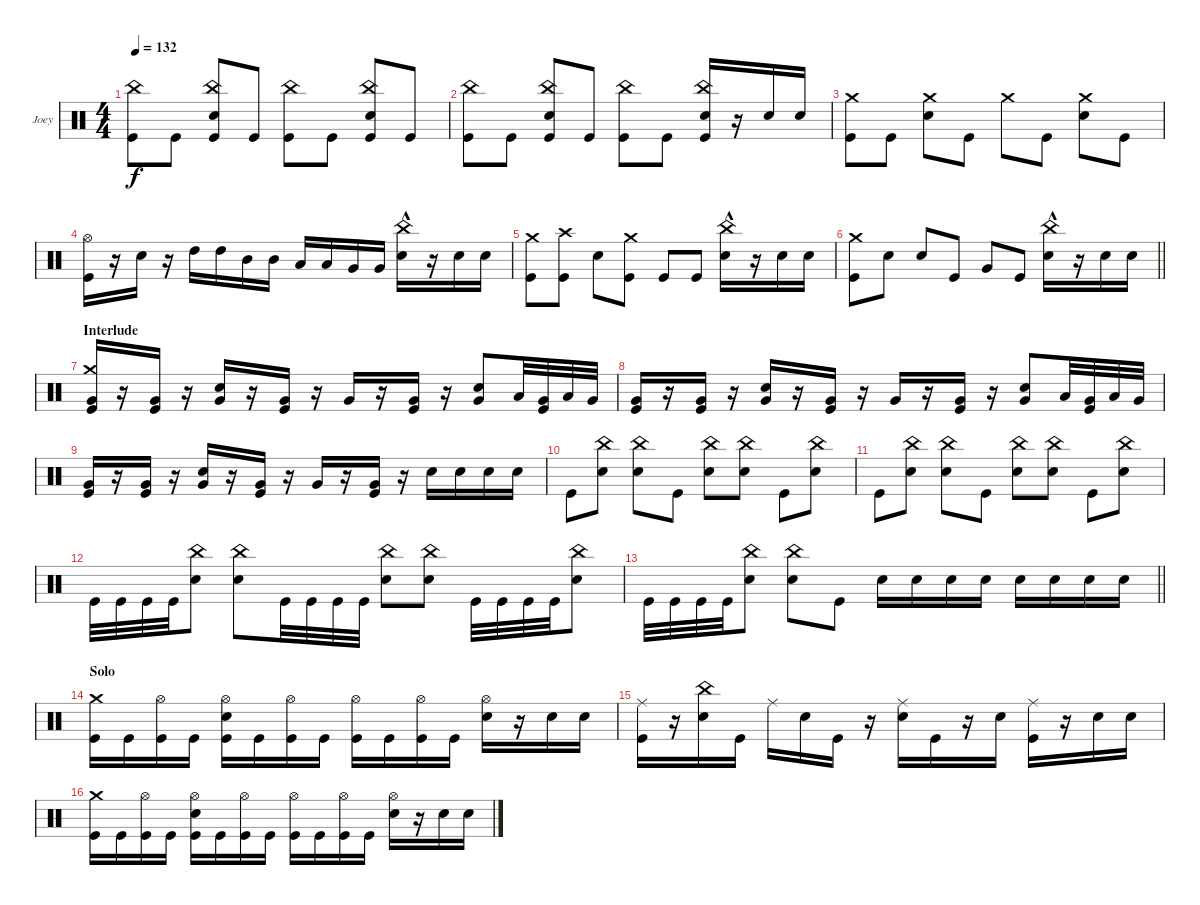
\bracketExtendMode groupsimilarinstruments
\firstSystemTrackNameOrientation horizontal
\otherSystemsTrackNameOrientation horizontal
\track ("Joey Jordison" "Joey") {instrument percussion}
\staff {score}
\articulation defaults
\ts (4 4)
\tempo 132
\clef neutral
\ks c
("Kick (hit)" "China (hit)").8{dy f} "Kick (hit)".8 ("Snare (hit) 2" "Kick (hit)" "China (hit)").8 "Kick (hit)".8 ("Kick (hit)" "China (hit)").8 "Kick (hit)".8 ("Snare (hit) 2" "Kick (hit)" "China (hit)").8 "Kick (hit)".8 |
("Kick (hit)" "China (hit)").8 "Kick (hit)".8 ("Snare (hit) 2" "Kick (hit)" "China (hit)").8 "Kick (hit)".8 ("Kick (hit)" "China (hit)").8 "Kick (hit)".8 ("Snare (hit) 2" "Kick (hit)" "China (hit)").16 r.16 "Snare (hit) 2".16 "Snare (hit) 2".16 |
("Crash medium (hit)" "Kick (hit)").8 "Kick (hit)".8 ("Crash medium (hit)" "Snare (hit) 2").8 "Kick (hit)".8 "Crash medium (hit)".8 "Kick (hit)".8 ("Crash medium (hit)" "Snare (hit) 2").8 "Kick (hit)".8 |
("Hi-Hat (open)" "Kick (hit)").16 r.16 "Snare (hit) 2".16 r.16 "High Tom (hit)".16 "High Tom (hit)".16 "Mid Tom (hit)".16 "Mid Tom (hit)".16 "Low Tom (hit)".16 "Low Tom (hit)".16 "Very Low Tom (hit)".16 "Very Low Tom (hit)".16 ("Snare (hit) 2" "China (hit)"{hac}).16 r.16 "Snare (hit) 2".16 "Snare (hit) 2".16 |
("Crash medium (hit)" "Kick (hit)").8 ("Kick (hit)" "Crash high (hit)").8 "Snare (hit) 2".8 ("Kick (hit)" "Crash medium (hit)").8 "Kick (hit)".8 "Kick (hit)".8 ("Snare (hit) 2" "China (hit)"{hac}).16 r.16 "Snare (hit) 2".16 "Snare (hit) 2".16 |
\barLineRight lightlight
("Crash medium (hit)" "Kick (hit)").8 "Snare (hit) 2".8 "Snare (hit) 2".8 "Kick (hit)".8 "Very Low Tom (hit)".8 "Kick (hit)".8 ("Snare (hit) 2" "China (hit)"{hac}).16 r.16 "Snare (hit) 2".16 "Snare (hit) 2".16 |
\section ("" "Interlude")
("Very Low Tom (hit)" "Kick (hit)" "Crash medium (hit)").16 r.16 ("Very Low Tom (hit)" "Kick (hit)").16 r.16 ("Very Low Tom (hit)" "Snare (hit) 2").16 r.16 ("Very Low Tom (hit)" "Kick (hit)").16 r.16 "Very Low Tom (hit)".16 r.16 ("Very Low Tom (hit)" "Kick (hit)").16 r.16 ("Very Low Tom (hit)" "Snare (hit) 2").8 "Low Tom (hit)".32 ("Very Low Tom (hit)" "Kick (hit)").32 "Low Tom (hit)".32 "Very Low Tom (hit)".32 |
("Very Low Tom (hit)" "Kick (hit)").16 r.16 ("Very Low Tom (hit)" "Kick (hit)").16 r.16 ("Very Low Tom (hit)" "Snare (hit) 2").16 r.16 ("Very Low Tom (hit)" "Kick (hit)").16 r.16 "Very Low Tom (hit)".16 r.16 ("Very Low Tom (hit)" "Kick (hit)").16 r.16 ("Very Low Tom (hit)" "Snare (hit) 2").8 "Low Tom (hit)".32 ("Very Low Tom (hit)" "Kick (hit)").32 "Low Tom (hit)".32 "Very Low Tom (hit)".32 |
("Very Low Tom (hit)" "Kick (hit)").16 r.16 ("Very Low Tom (hit)" "Kick (hit)").16 r.16 ("Very Low Tom (hit)" "Snare (hit) 2").16 r.16 ("Very Low Tom (hit)" "Kick (hit)").16 r.16 "Very Low Tom (hit)".16 r.16 ("Very Low Tom (hit)" "Kick (hit)").16 r.16 "Snare (hit) 2".16 "Snare (hit) 2".16 "Snare (hit) 2".16 "Snare (hit) 2".16 |
"Kick (hit)".8 ("Snare (hit) 2" "China (hit)").8 ("Snare (hit) 2" "China (hit)").8 "Kick (hit)".8 ("Snare (hit) 2" "China (hit)").8 ("Snare (hit) 2" "China (hit)").8 "Kick (hit)".8 ("Snare (hit) 2" "China (hit)").8 |
"Kick (hit)".8 ("Snare (hit) 2" "China (hit)").8 ("Snare (hit) 2" "China (hit)").8 "Kick (hit)".8 ("Snare (hit) 2" "China (hit)").8 ("Snare (hit) 2" "China (hit)").8 "Kick (hit)".8 ("Snare (hit) 2" "China (hit)").8 |
"Kick (hit)".32 "Kick (hit)".32 "Kick (hit)".32 "Kick (hit)".32 ("Snare (hit) 2" "China (hit)").8 ("Snare (hit) 2" "China (hit)").8 "Kick (hit)".32 "Kick (hit)".32 "Kick (hit)".32 "Kick (hit)".32 ("Snare (hit) 2" "China (hit)").8 ("Snare (hit) 2" "China (hit)").8 "Kick (hit)".32 "Kick (hit)".32 "Kick (hit)".32 "Kick (hit)".32 ("Snare (hit) 2" "China (hit)").8 |
\barLineRight lightlight "Kick (hit)".32 "Kick (hit)".32 "Kick (hit)".32 "Kick (hit)".32
("Snare (hit) 2" "China (hit)").8 ("Snare (hit) 2" "China (hit)").8 "Kick (hit)".8 "Snare (hit) 2".16 "Snare (hit) 2".16 "Snare (hit) 2".16 "Snare (hit) 2".16 "Snare (hit) 2".16 "Snare (hit) 2".16 "Snare (hit) 2".16 "Snare (hit) 2".16 |
\section ("" "Solo")
("Crash medium (hit)" "Kick (hit)").16 "Kick (hit)".16 ("Hi-Hat (open)" "Kick (hit)").16 "Kick (hit)".16 ("Hi-Hat (open)" "Snare (hit) 2" "Kick (hit)").16 "Kick (hit)".16 ("Hi-Hat (open)" "Kick (hit)").16 "Kick (hit)".16 ("Hi-Hat (open)" "Kick (hit)").16 "Kick (hit)".16 ("Hi-Hat (open)" "Kick (hit)").16 "Kick (hit)".16 ("Hi-Hat (open)" "Snare (hit) 2").16 r.16 "Snare (hit) 2".16 "Snare (hit) 2".16 |
("Ride (middle)" "Kick (hit)").16 r.16 ("China (hit)" "Snare (hit) 2").16 "Kick (hit)".16 "Ride (middle)".16 "Snare (hit) 2".16 "Kick (hit)".16 r.16 ("Ride (middle)" "Snare (hit) 2").16 "Kick (hit)".16 r.16 "Snare (hit) 2".16 ("Ride (middle)" "Kick (hit)").16 r.16 "Snare (hit) 2".16 "Snare (hit) 2".16 |
("Crash medium (hit)" "Kick (hit)").16 "Kick (hit)".16 ("Hi-Hat (open)" "Kick (hit)").16 "Kick (hit)".16 ("Hi-Hat (open)" "Snare (hit) 2" "Kick (hit)").16 "Kick (hit)".16 ("Hi-Hat (open)" "Kick (hit)").16 "Kick (hit)".16 ("Hi-Hat (open)" "Kick (hit)").16 "Kick (hit)".16 ("Hi-Hat (open)" "Kick (hit)").16 "Kick (hit)".16 ("Hi-Hat (open)" "Snare (hit) 2").16 r.16 "Snare (hit) 2".16 "Snare (hit) 2".16
